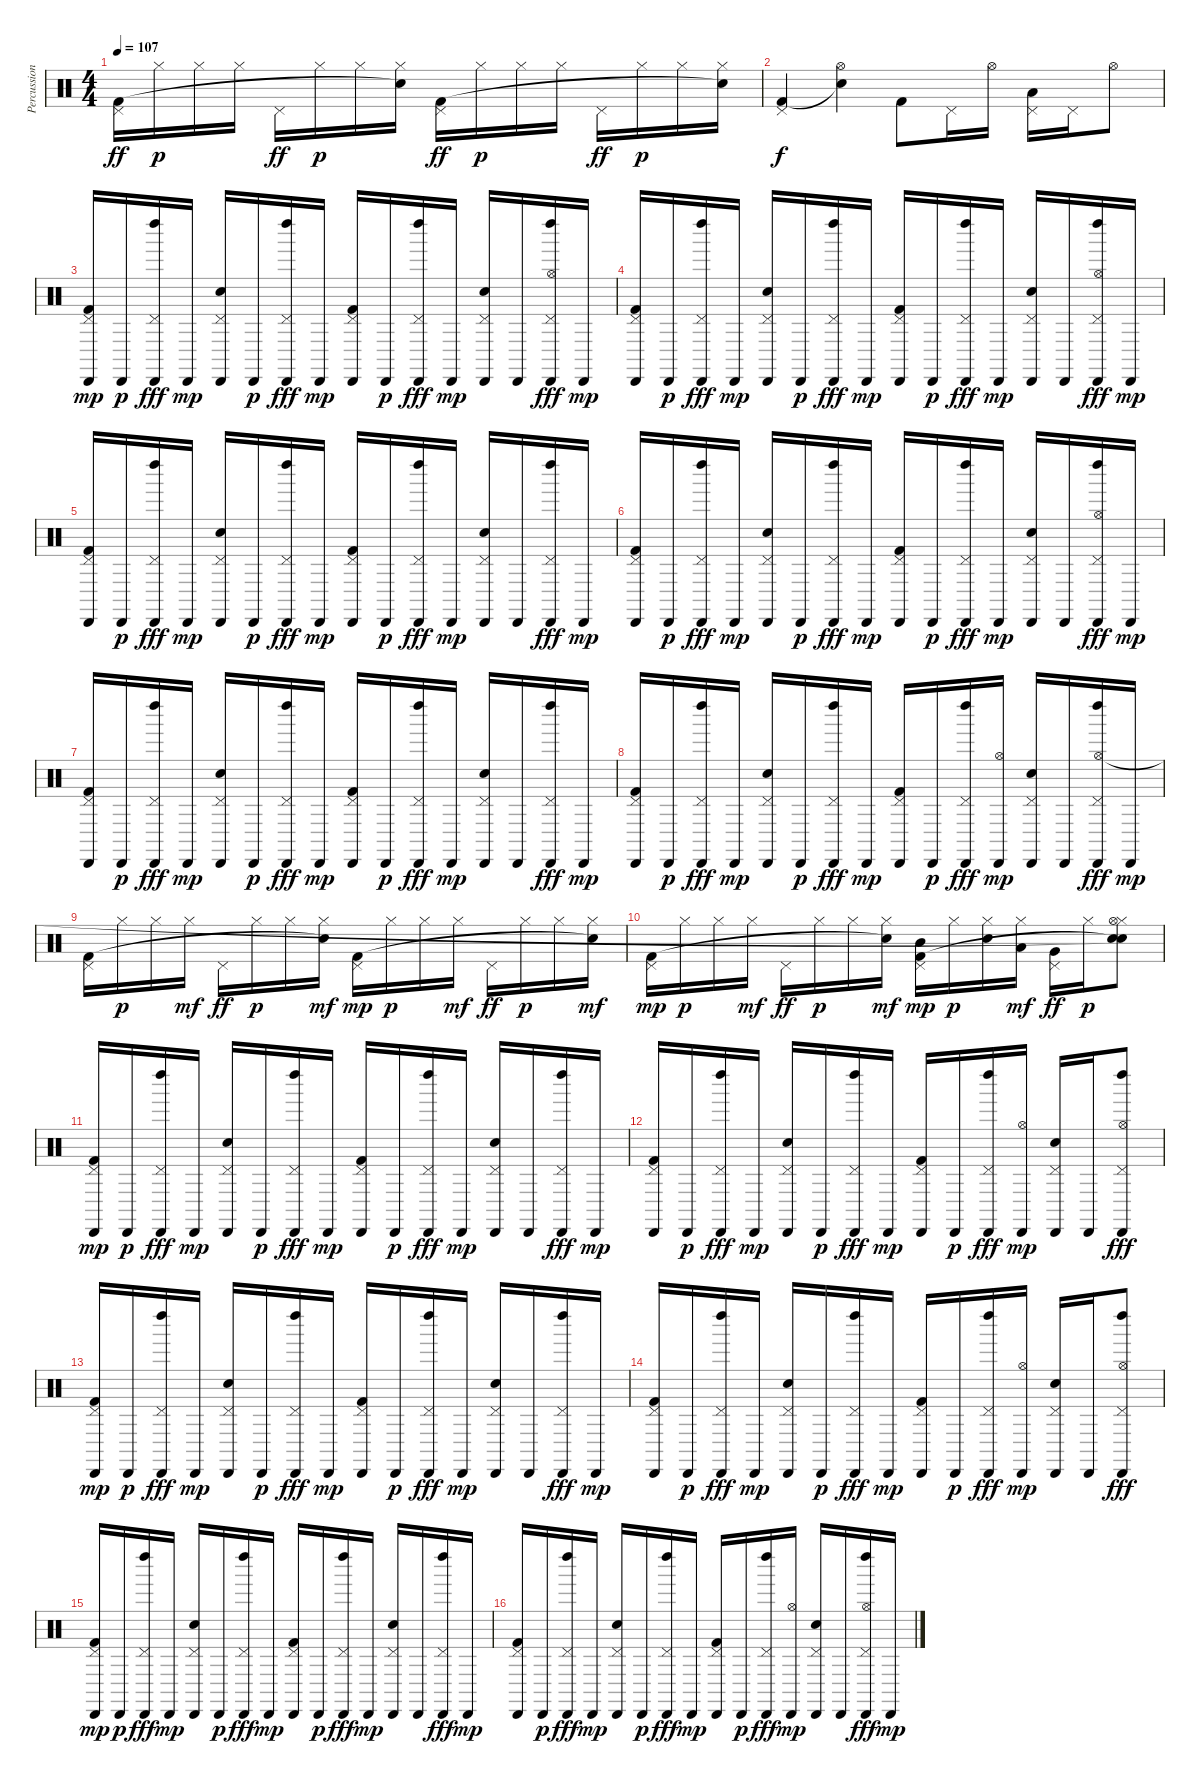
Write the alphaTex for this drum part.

\track ("Percussions" "Percussion") {instrument percussion}
\staff {score}
\articulation defaults
\ts (4 4)
\tempo 107
\clef neutral
\ks c
("Pedal Hi-Hat (hit)" "Kick (hit) 2").16{dy ff} "Hi-Hat (closed)".16{dy p} "Hi-Hat (closed)".16 "Hi-Hat (closed)".16 "Pedal Hi-Hat (hit)".16{dy ff} "Hi-Hat (closed)".16{dy p} "Hi-Hat (closed)".16 ("Hi-Hat (closed)" "Snare (hit)"{t}).16 ("Pedal Hi-Hat (hit)" "Kick (hit) 2").16{dy ff} "Hi-Hat (closed)".16{dy p} "Hi-Hat (closed)".16 "Hi-Hat (closed)".16 "Pedal Hi-Hat (hit)".16{dy ff} "Hi-Hat (closed)".16{dy p} "Hi-Hat (closed)".16 ("Hi-Hat (closed)" "Snare (hit)"{t}).16 |
("Pedal Hi-Hat (hit)" "Kick (hit) 2").4{dy f} ("Hi-Hat (open)" "Snare (hit)"{t}).4 "Kick (hit) 2".8 "Pedal Hi-Hat (hit)".16 "Hi-Hat (open)".16 ("Pedal Hi-Hat (hit)" "Low Tom (hit)").16 "Pedal Hi-Hat (hit)".16 "Hi-Hat (open)".8 |
("Cabasa (hit)" "Pedal Hi-Hat (hit)" "Kick (hit) 2").16{dy mp} "Cabasa (hit)".16{dy p} ("Cabasa (hit)" "Left Maraca (hit)" "Pedal Hi-Hat (hit)").16{dy fff} "Cabasa (hit)".16{dy mp} ("Cabasa (hit)" "Pedal Hi-Hat (hit)" "Snare (hit) 2").16 "Cabasa (hit)".16{dy p} ("Cabasa (hit)" "Left Maraca (hit)" "Pedal Hi-Hat (hit)").16{dy fff} "Cabasa (hit)".16{dy mp} ("Cabasa (hit)" "Pedal Hi-Hat (hit)" "Kick (hit) 2").16 "Cabasa (hit)".16{dy p} ("Cabasa (hit)" "Left Maraca (hit)" "Pedal Hi-Hat (hit)").16{dy fff} "Cabasa (hit)".16{dy mp} ("Cabasa (hit)" "Pedal Hi-Hat (hit)" "Snare (hit) 2").16 "Cabasa (hit)".16 ("Cabasa (hit)" "Left Maraca (hit)" "Pedal Hi-Hat (hit)" "Hi-Hat (open)").16{dy fff} "Cabasa (hit)".16{dy mp} |
("Cabasa (hit)" "Pedal Hi-Hat (hit)" "Kick (hit) 2").16 "Cabasa (hit)".16{dy p} ("Cabasa (hit)" "Left Maraca (hit)" "Pedal Hi-Hat (hit)").16{dy fff} "Cabasa (hit)".16{dy mp} ("Cabasa (hit)" "Pedal Hi-Hat (hit)" "Snare (hit) 2").16 "Cabasa (hit)".16{dy p} ("Cabasa (hit)" "Left Maraca (hit)" "Pedal Hi-Hat (hit)").16{dy fff} "Cabasa (hit)".16{dy mp} ("Cabasa (hit)" "Pedal Hi-Hat (hit)" "Kick (hit) 2").16 "Cabasa (hit)".16{dy p} ("Cabasa (hit)" "Left Maraca (hit)" "Pedal Hi-Hat (hit)").16{dy fff} "Cabasa (hit)".16{dy mp} ("Cabasa (hit)" "Pedal Hi-Hat (hit)" "Snare (hit) 2").16 "Cabasa (hit)".16 ("Cabasa (hit)" "Left Maraca (hit)" "Pedal Hi-Hat (hit)" "Hi-Hat (open)").16{dy fff} "Cabasa (hit)".16{dy mp} |
("Cabasa (hit)" "Pedal Hi-Hat (hit)" "Kick (hit) 2").16 "Cabasa (hit)".16{dy p} ("Cabasa (hit)" "Left Maraca (hit)" "Pedal Hi-Hat (hit)").16{dy fff} "Cabasa (hit)".16{dy mp} ("Cabasa (hit)" "Pedal Hi-Hat (hit)" "Snare (hit) 2").16 "Cabasa (hit)".16{dy p} ("Cabasa (hit)" "Left Maraca (hit)" "Pedal Hi-Hat (hit)").16{dy fff} "Cabasa (hit)".16{dy mp} ("Cabasa (hit)" "Pedal Hi-Hat (hit)" "Kick (hit) 2").16 "Cabasa (hit)".16{dy p} ("Cabasa (hit)" "Left Maraca (hit)" "Pedal Hi-Hat (hit)").16{dy fff} "Cabasa (hit)".16{dy mp} ("Cabasa (hit)" "Pedal Hi-Hat (hit)" "Snare (hit) 2").16 "Cabasa (hit)".16 ("Cabasa (hit)" "Left Maraca (hit)" "Pedal Hi-Hat (hit)").16{dy fff} "Cabasa (hit)".16{dy mp} |
("Cabasa (hit)" "Pedal Hi-Hat (hit)" "Kick (hit) 2").16 "Cabasa (hit)".16{dy p} ("Cabasa (hit)" "Left Maraca (hit)" "Pedal Hi-Hat (hit)").16{dy fff} "Cabasa (hit)".16{dy mp} ("Cabasa (hit)" "Pedal Hi-Hat (hit)" "Snare (hit) 2").16 "Cabasa (hit)".16{dy p} ("Cabasa (hit)" "Left Maraca (hit)" "Pedal Hi-Hat (hit)").16{dy fff} "Cabasa (hit)".16{dy mp} ("Cabasa (hit)" "Pedal Hi-Hat (hit)" "Kick (hit) 2").16 "Cabasa (hit)".16{dy p} ("Cabasa (hit)" "Left Maraca (hit)" "Pedal Hi-Hat (hit)").16{dy fff} "Cabasa (hit)".16{dy mp} ("Cabasa (hit)" "Pedal Hi-Hat (hit)" "Snare (hit) 2").16 "Cabasa (hit)".16 ("Cabasa (hit)" "Left Maraca (hit)" "Pedal Hi-Hat (hit)" "Hi-Hat (open)").16{dy fff} "Cabasa (hit)".16{dy mp} |
("Cabasa (hit)" "Pedal Hi-Hat (hit)" "Kick (hit) 2").16 "Cabasa (hit)".16{dy p} ("Cabasa (hit)" "Left Maraca (hit)" "Pedal Hi-Hat (hit)").16{dy fff} "Cabasa (hit)".16{dy mp} ("Cabasa (hit)" "Pedal Hi-Hat (hit)" "Snare (hit) 2").16 "Cabasa (hit)".16{dy p} ("Cabasa (hit)" "Left Maraca (hit)" "Pedal Hi-Hat (hit)").16{dy fff} "Cabasa (hit)".16{dy mp} ("Cabasa (hit)" "Pedal Hi-Hat (hit)" "Kick (hit) 2").16 "Cabasa (hit)".16{dy p} ("Cabasa (hit)" "Left Maraca (hit)" "Pedal Hi-Hat (hit)").16{dy fff} "Cabasa (hit)".16{dy mp} ("Cabasa (hit)" "Pedal Hi-Hat (hit)" "Snare (hit) 2").16 "Cabasa (hit)".16 ("Cabasa (hit)" "Left Maraca (hit)" "Pedal Hi-Hat (hit)").16{dy fff} "Cabasa (hit)".16{dy mp} |
("Cabasa (hit)" "Pedal Hi-Hat (hit)" "Kick (hit) 2").16 "Cabasa (hit)".16{dy p} ("Cabasa (hit)" "Left Maraca (hit)" "Pedal Hi-Hat (hit)").16{dy fff} "Cabasa (hit)".16{dy mp} ("Cabasa (hit)" "Pedal Hi-Hat (hit)" "Snare (hit) 2").16 "Cabasa (hit)".16{dy p} ("Cabasa (hit)" "Left Maraca (hit)" "Pedal Hi-Hat (hit)").16{dy fff} "Cabasa (hit)".16{dy mp} ("Cabasa (hit)" "Pedal Hi-Hat (hit)" "Kick (hit) 2").16 "Cabasa (hit)".16{dy p} ("Cabasa (hit)" "Left Maraca (hit)" "Pedal Hi-Hat (hit)").16{dy fff} ("Cabasa (hit)" "Hi-Hat (open)").16{dy mp} ("Cabasa (hit)" "Pedal Hi-Hat (hit)" "Snare (hit) 2").16 "Cabasa (hit)".16 ("Cabasa (hit)" "Left Maraca (hit)" "Pedal Hi-Hat (hit)" "Hi-Hat (open)").16{dy fff} "Cabasa (hit)".16{dy mp} |
("Pedal Hi-Hat (hit)" "Kick (hit) 2").16 "Hi-Hat (closed)".16{dy p} "Hi-Hat (closed)".16 "Hi-Hat (closed)".16{dy mf} "Pedal Hi-Hat (hit)".16{dy ff} "Hi-Hat (closed)".16{dy p} "Hi-Hat (closed)".16 ("Hi-Hat (closed)" "Snare (hit)"{t}).16{dy mf} ("Pedal Hi-Hat (hit)" "Kick (hit) 2").16{dy mp} "Hi-Hat (closed)".16{dy p} "Hi-Hat (closed)".16 "Hi-Hat (closed)".16{dy mf} "Pedal Hi-Hat (hit)".16{dy ff} "Hi-Hat (closed)".16{dy p} "Hi-Hat (closed)".16 ("Hi-Hat (closed)" "Snare (hit)"{t}).16{dy mf} |
("Pedal Hi-Hat (hit)" "Kick (hit) 2").16{dy mp} "Hi-Hat (closed)".16{dy p} "Hi-Hat (closed)".16 "Hi-Hat (closed)".16{dy mf} "Pedal Hi-Hat (hit)".16{dy ff} "Hi-Hat (closed)".16{dy p} "Hi-Hat (closed)".16 ("Hi-Hat (closed)" "Snare (hit)"{t}).16{dy mf} ("Pedal Hi-Hat (hit)" "Mid Tom (hit)" "Kick (hit) 2").16{dy mp} "Hi-Hat (closed)".16{dy p} ("Hi-Hat (closed)" "Snare (hit) 2").16 ("Hi-Hat (closed)" "Low Tom (hit)").16{dy mf} ("Pedal Hi-Hat (hit)" "Very Low Tom (hit)").16{dy ff} "Hi-Hat (closed)".16{dy p} ("Hi-Hat (closed)" "Hi-Hat (open)" "Snare (hit)"{t} "Snare (hit)"{t}).8 |
("Cabasa (hit)" "Pedal Hi-Hat (hit)" "Kick (hit) 2").16{dy mp} "Cabasa (hit)".16{dy p} ("Cabasa (hit)" "Left Maraca (hit)" "Pedal Hi-Hat (hit)").16{dy fff} "Cabasa (hit)".16{dy mp} ("Cabasa (hit)" "Pedal Hi-Hat (hit)" "Snare (hit) 2").16 "Cabasa (hit)".16{dy p} ("Cabasa (hit)" "Left Maraca (hit)" "Pedal Hi-Hat (hit)").16{dy fff} "Cabasa (hit)".16{dy mp} ("Cabasa (hit)" "Pedal Hi-Hat (hit)" "Kick (hit) 2").16 "Cabasa (hit)".16{dy p} ("Cabasa (hit)" "Left Maraca (hit)" "Pedal Hi-Hat (hit)").16{dy fff} "Cabasa (hit)".16{dy mp} ("Cabasa (hit)" "Pedal Hi-Hat (hit)" "Snare (hit) 2").16 "Cabasa (hit)".16 ("Cabasa (hit)" "Left Maraca (hit)" "Pedal Hi-Hat (hit)").16{dy fff} "Cabasa (hit)".16{dy mp} |
("Cabasa (hit)" "Pedal Hi-Hat (hit)" "Kick (hit) 2").16 "Cabasa (hit)".16{dy p} ("Cabasa (hit)" "Left Maraca (hit)" "Pedal Hi-Hat (hit)").16{dy fff} "Cabasa (hit)".16{dy mp} ("Cabasa (hit)" "Pedal Hi-Hat (hit)" "Snare (hit) 2").16 "Cabasa (hit)".16{dy p} ("Cabasa (hit)" "Left Maraca (hit)" "Pedal Hi-Hat (hit)").16{dy fff} "Cabasa (hit)".16{dy mp} ("Cabasa (hit)" "Pedal Hi-Hat (hit)" "Kick (hit) 2").16 "Cabasa (hit)".16{dy p} ("Cabasa (hit)" "Left Maraca (hit)" "Pedal Hi-Hat (hit)").16{dy fff} ("Cabasa (hit)" "Hi-Hat (open)").16{dy mp} ("Cabasa (hit)" "Pedal Hi-Hat (hit)" "Snare (hit) 2").16 "Cabasa (hit)".16 ("Cabasa (hit)" "Left Maraca (hit)" "Pedal Hi-Hat (hit)" "Hi-Hat (open)").8{dy fff} |
("Cabasa (hit)" "Pedal Hi-Hat (hit)" "Kick (hit) 2").16{dy mp} "Cabasa (hit)".16{dy p} ("Cabasa (hit)" "Left Maraca (hit)" "Pedal Hi-Hat (hit)").16{dy fff} "Cabasa (hit)".16{dy mp} ("Cabasa (hit)" "Pedal Hi-Hat (hit)" "Snare (hit) 2").16 "Cabasa (hit)".16{dy p} ("Cabasa (hit)" "Left Maraca (hit)" "Pedal Hi-Hat (hit)").16{dy fff} "Cabasa (hit)".16{dy mp} ("Cabasa (hit)" "Pedal Hi-Hat (hit)" "Kick (hit) 2").16 "Cabasa (hit)".16{dy p} ("Cabasa (hit)" "Left Maraca (hit)" "Pedal Hi-Hat (hit)").16{dy fff} "Cabasa (hit)".16{dy mp} ("Cabasa (hit)" "Pedal Hi-Hat (hit)" "Snare (hit) 2").16 "Cabasa (hit)".16 ("Cabasa (hit)" "Left Maraca (hit)" "Pedal Hi-Hat (hit)").16{dy fff} "Cabasa (hit)".16{dy mp} |
("Cabasa (hit)" "Pedal Hi-Hat (hit)" "Kick (hit) 2").16 "Cabasa (hit)".16{dy p} ("Cabasa (hit)" "Left Maraca (hit)" "Pedal Hi-Hat (hit)").16{dy fff} "Cabasa (hit)".16{dy mp} ("Cabasa (hit)" "Pedal Hi-Hat (hit)" "Snare (hit) 2").16 "Cabasa (hit)".16{dy p} ("Cabasa (hit)" "Left Maraca (hit)" "Pedal Hi-Hat (hit)").16{dy fff} "Cabasa (hit)".16{dy mp} ("Cabasa (hit)" "Pedal Hi-Hat (hit)" "Kick (hit) 2").16 "Cabasa (hit)".16{dy p} ("Cabasa (hit)" "Left Maraca (hit)" "Pedal Hi-Hat (hit)").16{dy fff} ("Cabasa (hit)" "Hi-Hat (open)").16{dy mp} ("Cabasa (hit)" "Pedal Hi-Hat (hit)" "Snare (hit) 2").16 "Cabasa (hit)".16 ("Cabasa (hit)" "Left Maraca (hit)" "Pedal Hi-Hat (hit)" "Hi-Hat (open)").8{dy fff} |
("Cabasa (hit)" "Pedal Hi-Hat (hit)" "Kick (hit) 2").16{dy mp} "Cabasa (hit)".16{dy p} ("Cabasa (hit)" "Left Maraca (hit)" "Pedal Hi-Hat (hit)").16{dy fff} "Cabasa (hit)".16{dy mp} ("Cabasa (hit)" "Pedal Hi-Hat (hit)" "Snare (hit) 2").16 "Cabasa (hit)".16{dy p} ("Cabasa (hit)" "Left Maraca (hit)" "Pedal Hi-Hat (hit)").16{dy fff} "Cabasa (hit)".16{dy mp} ("Cabasa (hit)" "Pedal Hi-Hat (hit)" "Kick (hit) 2").16 "Cabasa (hit)".16{dy p} ("Cabasa (hit)" "Left Maraca (hit)" "Pedal Hi-Hat (hit)").16{dy fff} "Cabasa (hit)".16{dy mp} ("Cabasa (hit)" "Pedal Hi-Hat (hit)" "Snare (hit) 2").16 "Cabasa (hit)".16 ("Cabasa (hit)" "Left Maraca (hit)" "Pedal Hi-Hat (hit)").16{dy fff} "Cabasa (hit)".16{dy mp} |
("Cabasa (hit)" "Pedal Hi-Hat (hit)" "Kick (hit) 2").16 "Cabasa (hit)".16{dy p} ("Cabasa (hit)" "Left Maraca (hit)" "Pedal Hi-Hat (hit)").16{dy fff} "Cabasa (hit)".16{dy mp} ("Cabasa (hit)" "Pedal Hi-Hat (hit)" "Snare (hit) 2").16 "Cabasa (hit)".16{dy p} ("Cabasa (hit)" "Left Maraca (hit)" "Pedal Hi-Hat (hit)").16{dy fff} "Cabasa (hit)".16{dy mp} ("Cabasa (hit)" "Pedal Hi-Hat (hit)" "Kick (hit) 2").16 "Cabasa (hit)".16{dy p} ("Cabasa (hit)" "Left Maraca (hit)" "Pedal Hi-Hat (hit)").16{dy fff} ("Cabasa (hit)" "Hi-Hat (open)").16{dy mp} ("Cabasa (hit)" "Pedal Hi-Hat (hit)" "Snare (hit) 2").16 "Cabasa (hit)".16 ("Cabasa (hit)" "Left Maraca (hit)" "Pedal Hi-Hat (hit)" "Hi-Hat (open)").16{dy fff} "Cabasa (hit)".16{dy mp}
